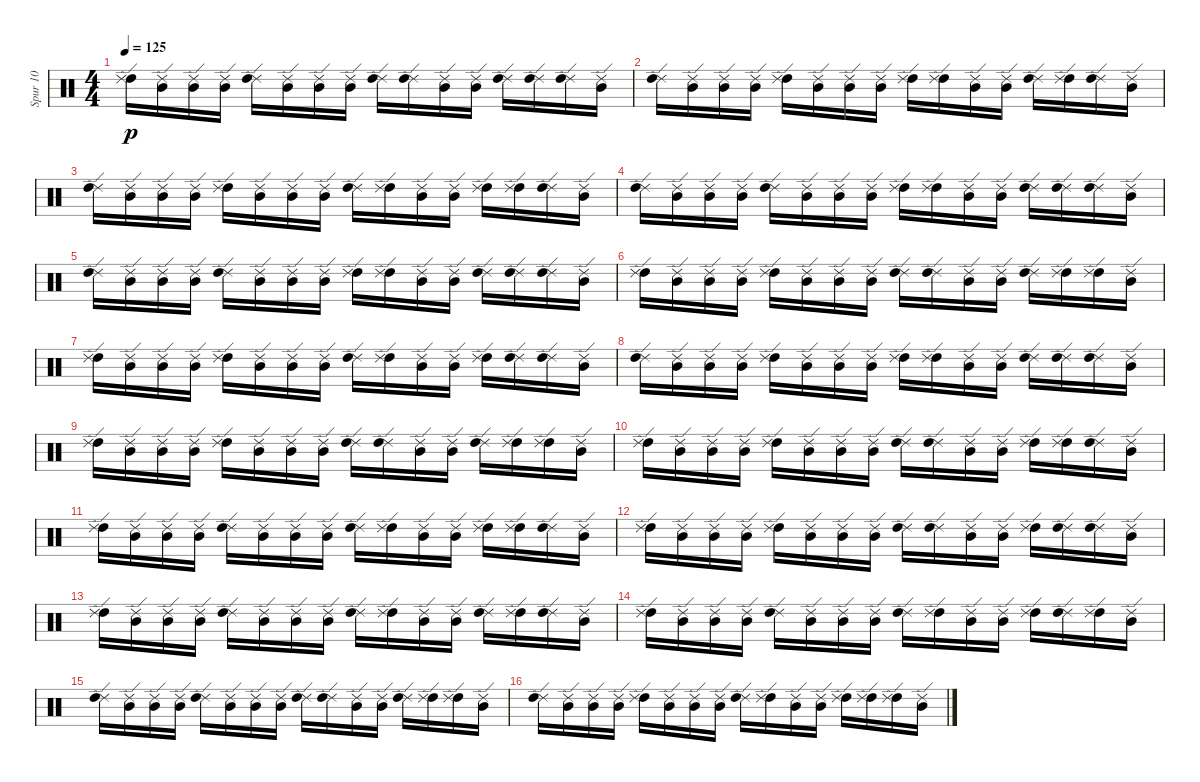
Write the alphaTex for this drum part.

\track ("Spur 10" "Spur 10") {instrument percussion}
\staff {score}
\articulation defaults
\ts (4 4)
\tempo 125
\clef neutral
\ks c
("High Tom (hit)" "Ride (edge) 2").16{dy p} ("Mid Tom (hit)" "Ride (edge) 2").16 ("Mid Tom (hit)" "Ride (edge) 2").16 ("Mid Tom (hit)" "Ride (edge) 2").16 ("Ride (edge) 2" "High Tom (hit)").16 ("Mid Tom (hit)" "Ride (edge) 2").16 ("Mid Tom (hit)" "Ride (edge) 2").16 ("Mid Tom (hit)" "Ride (edge) 2").16 ("Ride (edge) 2" "High Tom (hit)").16 ("Ride (edge) 2" "High Tom (hit)").16 ("Ride (edge) 2" "Mid Tom (hit)").16 ("Ride (edge) 2" "Mid Tom (hit)").16 ("Ride (edge) 2" "High Tom (hit)").16 ("Ride (edge) 2" "High Tom (hit)").16 ("Ride (edge) 2" "High Tom (hit)").16 ("Mid Tom (hit)" "Ride (edge) 2").16 |
("Ride (edge) 2" "High Tom (hit)").16 ("Ride (edge) 2" "Mid Tom (hit)").16 ("Ride (edge) 2" "Mid Tom (hit)").16 ("Mid Tom (hit)" "Ride (edge) 2").16 ("High Tom (hit)" "Ride (edge) 2").16 ("Ride (edge) 2" "Mid Tom (hit)").16 ("Mid Tom (hit)" "Ride (edge) 2").16 ("Mid Tom (hit)" "Ride (edge) 2").16 ("High Tom (hit)" "Ride (edge) 2").16 ("High Tom (hit)" "Ride (edge) 2").16 ("Ride (edge) 2" "Mid Tom (hit)").16 ("Mid Tom (hit)" "Ride (edge) 2").16 ("Ride (edge) 2" "High Tom (hit)").16 ("High Tom (hit)" "Ride (edge) 2").16 ("Ride (edge) 2" "High Tom (hit)").16 ("Mid Tom (hit)" "Ride (edge) 2").16 |
("Ride (edge) 2" "High Tom (hit)").16 ("Ride (edge) 2" "Mid Tom (hit)").16 ("Mid Tom (hit)" "Ride (edge) 2").16 ("Mid Tom (hit)" "Ride (edge) 2").16 ("High Tom (hit)" "Ride (edge) 2").16 ("Ride (edge) 2" "Mid Tom (hit)").16 ("Ride (edge) 2" "Mid Tom (hit)").16 ("Mid Tom (hit)" "Ride (edge) 2").16 ("Ride (edge) 2" "High Tom (hit)").16 ("High Tom (hit)" "Ride (edge) 2").16 ("Ride (edge) 2" "Mid Tom (hit)").16 ("Mid Tom (hit)" "Ride (edge) 2").16 ("High Tom (hit)" "Ride (edge) 2").16 ("High Tom (hit)" "Ride (edge) 2").16 ("Ride (edge) 2" "High Tom (hit)").16 ("Ride (edge) 2" "Mid Tom (hit)").16 |
("Ride (edge) 2" "High Tom (hit)").16 ("Mid Tom (hit)" "Ride (edge) 2").16 ("Ride (edge) 2" "Mid Tom (hit)").16 ("Mid Tom (hit)" "Ride (edge) 2").16 ("Ride (edge) 2" "High Tom (hit)").16 ("Ride (edge) 2" "Mid Tom (hit)").16 ("Mid Tom (hit)" "Ride (edge) 2").16 ("Ride (edge) 2" "Mid Tom (hit)").16 ("High Tom (hit)" "Ride (edge) 2").16 ("High Tom (hit)" "Ride (edge) 2").16 ("Ride (edge) 2" "Mid Tom (hit)").16 ("Ride (edge) 2" "Mid Tom (hit)").16 ("Ride (edge) 2" "High Tom (hit)").16 ("Ride (edge) 2" "High Tom (hit)").16 ("Ride (edge) 2" "High Tom (hit)").16 ("Ride (edge) 2" "Mid Tom (hit)").16 |
("Ride (edge) 2" "High Tom (hit)").16 ("Mid Tom (hit)" "Ride (edge) 2").16 ("Ride (edge) 2" "Mid Tom (hit)").16 ("Mid Tom (hit)" "Ride (edge) 2").16 ("Ride (edge) 2" "High Tom (hit)").16 ("Ride (edge) 2" "Mid Tom (hit)").16 ("Ride (edge) 2" "Mid Tom (hit)").16 ("Ride (edge) 2" "Mid Tom (hit)").16 ("High Tom (hit)" "Ride (edge) 2").16 ("High Tom (hit)" "Ride (edge) 2").16 ("Mid Tom (hit)" "Ride (edge) 2").16 ("Ride (edge) 2" "Mid Tom (hit)").16 ("Ride (edge) 2" "High Tom (hit)").16 ("Ride (edge) 2" "High Tom (hit)").16 ("Ride (edge) 2" "High Tom (hit)").16 ("Ride (edge) 2" "Mid Tom (hit)").16 |
("High Tom (hit)" "Ride (edge) 2").16 ("Mid Tom (hit)" "Ride (edge) 2").16 ("Mid Tom (hit)" "Ride (edge) 2").16 ("Mid Tom (hit)" "Ride (edge) 2").16 ("High Tom (hit)" "Ride (edge) 2").16 ("Ride (edge) 2" "Mid Tom (hit)").16 ("Mid Tom (hit)" "Ride (edge) 2").16 ("Ride (edge) 2" "Mid Tom (hit)").16 ("Ride (edge) 2" "High Tom (hit)").16 ("Ride (edge) 2" "High Tom (hit)").16 ("Mid Tom (hit)" "Ride (edge) 2").16 ("Mid Tom (hit)" "Ride (edge) 2").16 ("Ride (edge) 2" "High Tom (hit)").16 ("High Tom (hit)" "Ride (edge) 2").16 ("High Tom (hit)" "Ride (edge) 2").16 ("Mid Tom (hit)" "Ride (edge) 2").16 |
("High Tom (hit)" "Ride (edge) 2").16 ("Mid Tom (hit)" "Ride (edge) 2").16 ("Mid Tom (hit)" "Ride (edge) 2").16 ("Ride (edge) 2" "Mid Tom (hit)").16 ("High Tom (hit)" "Ride (edge) 2").16 ("Mid Tom (hit)" "Ride (edge) 2").16 ("Mid Tom (hit)" "Ride (edge) 2").16 ("Mid Tom (hit)" "Ride (edge) 2").16 ("Ride (edge) 2" "High Tom (hit)").16 ("High Tom (hit)" "Ride (edge) 2").16 ("Mid Tom (hit)" "Ride (edge) 2").16 ("Mid Tom (hit)" "Ride (edge) 2").16 ("High Tom (hit)" "Ride (edge) 2").16 ("Ride (edge) 2" "High Tom (hit)").16 ("Ride (edge) 2" "High Tom (hit)").16 ("Mid Tom (hit)" "Ride (edge) 2").16 |
("Ride (edge) 2" "High Tom (hit)").16 ("Mid Tom (hit)" "Ride (edge) 2").16 ("Ride (edge) 2" "Mid Tom (hit)").16 ("Ride (edge) 2" "Mid Tom (hit)").16 ("High Tom (hit)" "Ride (edge) 2").16 ("Mid Tom (hit)" "Ride (edge) 2").16 ("Ride (edge) 2" "Mid Tom (hit)").16 ("Mid Tom (hit)" "Ride (edge) 2").16 ("High Tom (hit)" "Ride (edge) 2").16 ("High Tom (hit)" "Ride (edge) 2").16 ("Mid Tom (hit)" "Ride (edge) 2").16 ("Mid Tom (hit)" "Ride (edge) 2").16 ("Ride (edge) 2" "High Tom (hit)").16 ("Ride (edge) 2" "High Tom (hit)").16 ("Ride (edge) 2" "High Tom (hit)").16 ("Ride (edge) 2" "Mid Tom (hit)").16 |
("High Tom (hit)" "Ride (edge) 2").16 ("Mid Tom (hit)" "Ride (edge) 2").16 ("Ride (edge) 2" "Mid Tom (hit)").16 ("Ride (edge) 2" "Mid Tom (hit)").16 ("High Tom (hit)" "Ride (edge) 2").16 ("Mid Tom (hit)" "Ride (edge) 2").16 ("Ride (edge) 2" "Mid Tom (hit)").16 ("Mid Tom (hit)" "Ride (edge) 2").16 ("Ride (edge) 2" "High Tom (hit)").16 ("Ride (edge) 2" "High Tom (hit)").16 ("Mid Tom (hit)" "Ride (edge) 2").16 ("Ride (edge) 2" "Mid Tom (hit)").16 ("Ride (edge) 2" "High Tom (hit)").16 ("High Tom (hit)" "Ride (edge) 2").16 ("High Tom (hit)" "Ride (edge) 2").16 ("Mid Tom (hit)" "Ride (edge) 2").16 |
("High Tom (hit)" "Ride (edge) 2").16 ("Mid Tom (hit)" "Ride (edge) 2").16 ("Ride (edge) 2" "Mid Tom (hit)").16 ("Mid Tom (hit)" "Ride (edge) 2").16 ("High Tom (hit)" "Ride (edge) 2").16 ("Ride (edge) 2" "Mid Tom (hit)").16 ("Mid Tom (hit)" "Ride (edge) 2").16 ("Ride (edge) 2" "Mid Tom (hit)").16 ("Ride (edge) 2" "High Tom (hit)").16 ("Ride (edge) 2" "High Tom (hit)").16 ("Mid Tom (hit)" "Ride (edge) 2").16 ("Mid Tom (hit)" "Ride (edge) 2").16 ("High Tom (hit)" "Ride (edge) 2").16 ("High Tom (hit)" "Ride (edge) 2").16 ("Ride (edge) 2" "High Tom (hit)").16 ("Mid Tom (hit)" "Ride (edge) 2").16 |
("High Tom (hit)" "Ride (edge) 2").16 ("Mid Tom (hit)" "Ride (edge) 2").16 ("Ride (edge) 2" "Mid Tom (hit)").16 ("Mid Tom (hit)" "Ride (edge) 2").16 ("Ride (edge) 2" "High Tom (hit)").16 ("Ride (edge) 2" "Mid Tom (hit)").16 ("Mid Tom (hit)" "Ride (edge) 2").16 ("Mid Tom (hit)" "Ride (edge) 2").16 ("Ride (edge) 2" "High Tom (hit)").16 ("High Tom (hit)" "Ride (edge) 2").16 ("Mid Tom (hit)" "Ride (edge) 2").16 ("Mid Tom (hit)" "Ride (edge) 2").16 ("High Tom (hit)" "Ride (edge) 2").16 ("High Tom (hit)" "Ride (edge) 2").16 ("Ride (edge) 2" "High Tom (hit)").16 ("Mid Tom (hit)" "Ride (edge) 2").16 |
("High Tom (hit)" "Ride (edge) 2").16 ("Ride (edge) 2" "Mid Tom (hit)").16 ("Mid Tom (hit)" "Ride (edge) 2").16 ("Ride (edge) 2" "Mid Tom (hit)").16 ("High Tom (hit)" "Ride (edge) 2").16 ("Ride (edge) 2" "Mid Tom (hit)").16 ("Mid Tom (hit)" "Ride (edge) 2").16 ("Mid Tom (hit)" "Ride (edge) 2").16 ("Ride (edge) 2" "High Tom (hit)").16 ("Ride (edge) 2" "High Tom (hit)").16 ("Mid Tom (hit)" "Ride (edge) 2").16 ("Ride (edge) 2" "Mid Tom (hit)").16 ("High Tom (hit)" "Ride (edge) 2").16 ("Ride (edge) 2" "High Tom (hit)").16 ("Ride (edge) 2" "High Tom (hit)").16 ("Ride (edge) 2" "Mid Tom (hit)").16 |
("High Tom (hit)" "Ride (edge) 2").16 ("Ride (edge) 2" "Mid Tom (hit)").16 ("Mid Tom (hit)" "Ride (edge) 2").16 ("Mid Tom (hit)" "Ride (edge) 2").16 ("Ride (edge) 2" "High Tom (hit)").16 ("Mid Tom (hit)" "Ride (edge) 2").16 ("Mid Tom (hit)" "Ride (edge) 2").16 ("Mid Tom (hit)" "Ride (edge) 2").16 ("Ride (edge) 2" "High Tom (hit)").16 ("High Tom (hit)" "Ride (edge) 2").16 ("Mid Tom (hit)" "Ride (edge) 2").16 ("Ride (edge) 2" "Mid Tom (hit)").16 ("Ride (edge) 2" "High Tom (hit)").16 ("High Tom (hit)" "Ride (edge) 2").16 ("Ride (edge) 2" "High Tom (hit)").16 ("Mid Tom (hit)" "Ride (edge) 2").16 |
("High Tom (hit)" "Ride (edge) 2").16 ("Ride (edge) 2" "Mid Tom (hit)").16 ("Ride (edge) 2" "Mid Tom (hit)").16 ("Ride (edge) 2" "Mid Tom (hit)").16 ("Ride (edge) 2" "High Tom (hit)").16 ("Ride (edge) 2" "Mid Tom (hit)").16 ("Mid Tom (hit)" "Ride (edge) 2").16 ("Ride (edge) 2" "Mid Tom (hit)").16 ("Ride (edge) 2" "High Tom (hit)").16 ("High Tom (hit)" "Ride (edge) 2").16 ("Mid Tom (hit)" "Ride (edge) 2").16 ("Ride (edge) 2" "Mid Tom (hit)").16 ("High Tom (hit)" "Ride (edge) 2").16 ("Ride (edge) 2" "High Tom (hit)").16 ("High Tom (hit)" "Ride (edge) 2").16 ("Mid Tom (hit)" "Ride (edge) 2").16 |
("Ride (edge) 2" "High Tom (hit)").16 ("Mid Tom (hit)" "Ride (edge) 2").16 ("Ride (edge) 2" "Mid Tom (hit)").16 ("Ride (edge) 2" "Mid Tom (hit)").16 ("Ride (edge) 2" "High Tom (hit)").16 ("Mid Tom (hit)" "Ride (edge) 2").16 ("Ride (edge) 2" "Mid Tom (hit)").16 ("Mid Tom (hit)" "Ride (edge) 2").16 ("Ride (edge) 2" "High Tom (hit)").16 ("Ride (edge) 2" "High Tom (hit)").16 ("Mid Tom (hit)" "Ride (edge) 2").16 ("Mid Tom (hit)" "Ride (edge) 2").16 ("Ride (edge) 2" "High Tom (hit)").16 ("High Tom (hit)" "Ride (edge) 2").16 ("High Tom (hit)" "Ride (edge) 2").16 ("Mid Tom (hit)" "Ride (edge) 2").16 |
("Ride (edge) 2" "High Tom (hit)").16 ("Mid Tom (hit)" "Ride (edge) 2").16 ("Mid Tom (hit)" "Ride (edge) 2").16 ("Mid Tom (hit)" "Ride (edge) 2").16 ("High Tom (hit)" "Ride (edge) 2").16 ("Ride (edge) 2" "Mid Tom (hit)").16 ("Mid Tom (hit)" "Ride (edge) 2").16 ("Ride (edge) 2" "Mid Tom (hit)").16 ("Ride (edge) 2" "High Tom (hit)").16 ("High Tom (hit)" "Ride (edge) 2").16 ("Mid Tom (hit)" "Ride (edge) 2").16 ("Mid Tom (hit)" "Ride (edge) 2").16 ("High Tom (hit)" "Ride (edge) 2").16 ("High Tom (hit)" "Ride (edge) 2").16 ("High Tom (hit)" "Ride (edge) 2").16 ("Mid Tom (hit)" "Ride (edge) 2").16
